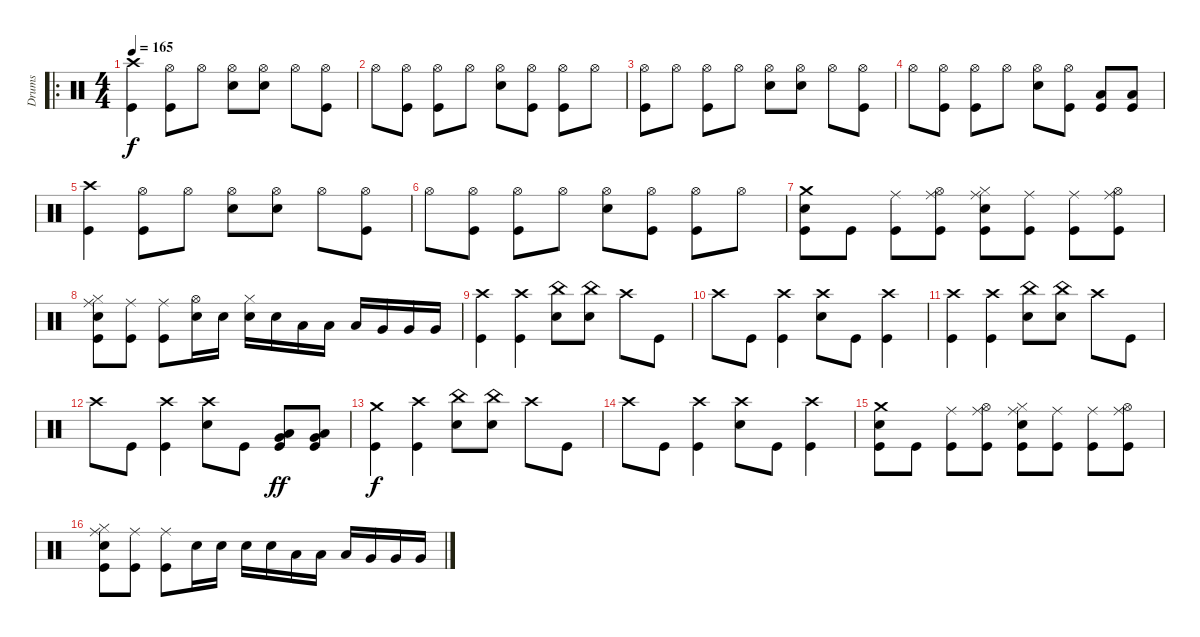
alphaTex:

\track ("Drums" "Drums") {instrument percussion}
\staff {score}
\articulation defaults
\ro
\ts (4 4)
\tempo 165
\clef neutral
\ks c
("Crash high (hit)" "Kick (hit)").4{dy f} ("Hi-Hat (open)" "Kick (hit)").8 "Hi-Hat (open)".8 ("Hi-Hat (open)" "Electric Snare (hit)").8 ("Hi-Hat (open)" "Electric Snare (hit)").8 "Hi-Hat (open)".8 ("Hi-Hat (open)" "Kick (hit)").8 |
"Hi-Hat (open)".8 ("Hi-Hat (open)" "Kick (hit)").8 ("Hi-Hat (open)" "Kick (hit)").8 "Hi-Hat (open)".8 ("Hi-Hat (open)" "Electric Snare (hit)").8 ("Hi-Hat (open)" "Kick (hit)").8 ("Hi-Hat (open)" "Kick (hit)").8 "Hi-Hat (open)".8 |
("Hi-Hat (open)" "Kick (hit)").8 "Hi-Hat (open)".8 ("Hi-Hat (open)" "Kick (hit)").8 "Hi-Hat (open)".8 ("Hi-Hat (open)" "Electric Snare (hit)").8 ("Hi-Hat (open)" "Electric Snare (hit)").8 "Hi-Hat (open)".8 ("Hi-Hat (open)" "Kick (hit)").8 |
"Hi-Hat (open)".8 ("Hi-Hat (open)" "Kick (hit)").8 ("Hi-Hat (open)" "Kick (hit)").8 "Hi-Hat (open)".8 ("Hi-Hat (open)" "Electric Snare (hit)").8 ("Hi-Hat (open)" "Kick (hit)").8 ("Low Floor Tom (hit)" "Kick (hit)").8 ("Low Floor Tom (hit)" "Kick (hit)").8 |
("Crash high (hit)" "Kick (hit)").4 ("Hi-Hat (open)" "Kick (hit)").8 "Hi-Hat (open)".8 ("Hi-Hat (open)" "Electric Snare (hit)").8 ("Hi-Hat (open)" "Electric Snare (hit)").8 "Hi-Hat (open)".8 ("Hi-Hat (open)" "Kick (hit)").8 |
"Hi-Hat (open)".8 ("Hi-Hat (open)" "Kick (hit)").8 ("Hi-Hat (open)" "Kick (hit)").8 "Hi-Hat (open)".8 ("Hi-Hat (open)" "Electric Snare (hit)").8 ("Hi-Hat (open)" "Kick (hit)").8 ("Hi-Hat (open)" "Kick (hit)").8 "Hi-Hat (open)".8 |
("Crash medium (hit)" "Electric Snare (hit)" "Kick (hit)").8 "Kick (hit)".8 ("Ride (middle)" "Kick (hit)").8 ("Hi-Hat (open)" "Ride (middle)" "Kick (hit)").8 ("Hi-Hat (closed)" "Ride (middle)" "Electric Snare (hit)" "Kick (hit)").8 ("Ride (middle)" "Kick (hit)").8 ("Ride (middle)" "Kick (hit)").8 ("Hi-Hat (open)" "Ride (middle)" "Kick (hit)").8 |
("Hi-Hat (closed)" "Ride (middle)" "Electric Snare (hit)" "Kick (hit)").8 ("Ride (middle)" "Kick (hit)").8 ("Ride (middle)" "Kick (hit)").8 ("Hi-Hat (open)" "Electric Snare (hit)").16 "Electric Snare (hit)".16 ("Hi-Hat (closed)" "Electric Snare (hit)").16 "Electric Snare (hit)".16 "Low Tom (hit)".16 "Low Tom (hit)".16 "Low Tom (hit)".16 "Very Low Tom (hit)".16 "Very Low Tom (hit)".16 "Very Low Tom (hit)".16 |
("Crash high (hit)" "Kick (hit)").4 ("Crash high (hit)" "Kick (hit)").4 ("China (hit)" "Electric Snare (hit)").8 ("China (hit)" "Electric Snare (hit)").8 "Crash high (hit)".8 "Kick (hit)".8 |
"Crash high (hit)".8 "Kick (hit)".8 ("Crash high (hit)" "Kick (hit)").4 ("Crash high (hit)" "Electric Snare (hit)").8 "Kick (hit)".8 ("Crash high (hit)" "Kick (hit)").4 |
("Crash high (hit)" "Kick (hit)").4 ("Crash high (hit)" "Kick (hit)").4 ("China (hit)" "Electric Snare (hit)").8 ("China (hit)" "Electric Snare (hit)").8 "Crash high (hit)".8 "Kick (hit)".8 |
"Crash high (hit)".8 "Kick (hit)".8 ("Crash high (hit)" "Kick (hit)").4 ("Crash high (hit)" "Electric Snare (hit)").8 "Kick (hit)".8 ("Low Floor Tom (hit)" "Very Low Tom (hit)" "Kick (hit)").8{dy ff} ("Low Floor Tom (hit)" "Very Low Tom (hit)" "Kick (hit)").8 |
("Crash medium (hit)" "Kick (hit)").4{dy f} ("Crash high (hit)" "Kick (hit)").4 ("China (hit)" "Electric Snare (hit)").8 ("China (hit)" "Electric Snare (hit)").8 "Crash high (hit)".8 "Kick (hit)".8 |
"Crash high (hit)".8 "Kick (hit)".8 ("Crash high (hit)" "Kick (hit)").4 ("Crash high (hit)" "Electric Snare (hit)").8 "Kick (hit)".8 ("Crash high (hit)" "Kick (hit)").4 |
("Crash medium (hit)" "Electric Snare (hit)" "Kick (hit)").8 "Kick (hit)".8 ("Ride (middle)" "Kick (hit)").8 ("Hi-Hat (open)" "Ride (middle)" "Kick (hit)").8 ("Hi-Hat (closed)" "Ride (middle)" "Electric Snare (hit)" "Kick (hit)").8 ("Ride (middle)" "Kick (hit)").8 ("Ride (middle)" "Kick (hit)").8 ("Hi-Hat (open)" "Ride (middle)" "Kick (hit)").8 |
("Hi-Hat (closed)" "Ride (middle)" "Electric Snare (hit)" "Kick (hit)").8 ("Ride (middle)" "Kick (hit)").8 ("Ride (middle)" "Kick (hit)").8 "Electric Snare (hit)".16 "Electric Snare (hit)".16 "Electric Snare (hit)".16 "Electric Snare (hit)".16 "Low Tom (hit)".16 "Low Tom (hit)".16 "Low Tom (hit)".16 "Very Low Tom (hit)".16 "Very Low Tom (hit)".16 "Very Low Tom (hit)".16
